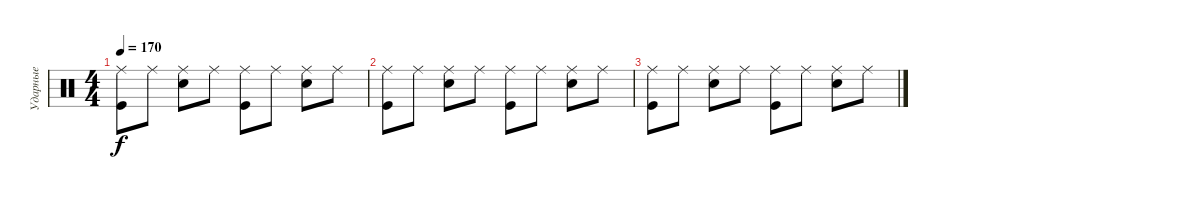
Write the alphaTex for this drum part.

\track ("Ударные" "Ударные") {instrument percussion}
\staff {score}
\articulation defaults
\ts (4 4)
\tempo 170
\clef neutral
\ks c
("Ride (middle)" "Kick (hit)").8{dy f} "Ride (middle)".8 ("Ride (middle)" "Electric Snare (hit)").8 "Ride (middle)".8 ("Ride (middle)" "Kick (hit)").8 "Ride (middle)".8 ("Ride (middle)" "Electric Snare (hit)").8 "Ride (middle)".8 |
("Ride (middle)" "Kick (hit)").8 "Ride (middle)".8 ("Ride (middle)" "Electric Snare (hit)").8 "Ride (middle)".8 ("Ride (middle)" "Kick (hit)").8 "Ride (middle)".8 ("Ride (middle)" "Electric Snare (hit)").8 "Ride (middle)".8 |
("Ride (middle)" "Kick (hit)").8 "Ride (middle)".8 ("Ride (middle)" "Electric Snare (hit)").8 "Ride (middle)".8 ("Ride (middle)" "Kick (hit)").8 "Ride (middle)".8 ("Ride (middle)" "Electric Snare (hit)").8 "Ride (middle)".8
